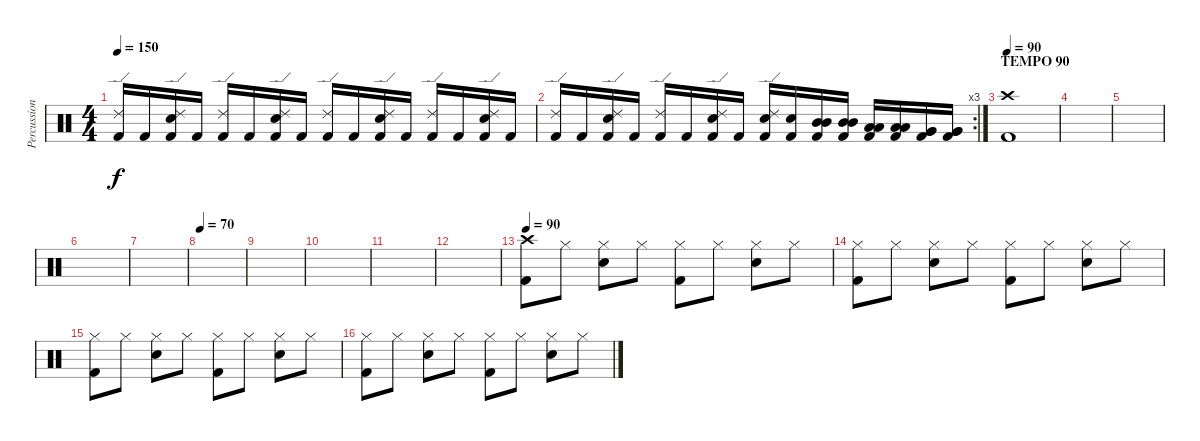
\track ("Percussion" "Percussion") {instrument percussion}
\staff {score}
\articulation defaults
\ts (4 4)
\tempo 150
\clef neutral
\ks c
("Kick (hit) 2" "Ride (edge) 2").16{dy f} "Kick (hit) 2".16 ("Kick (hit) 2" "Snare (hit) 2" "Ride (edge) 2").16 "Kick (hit) 2".16 ("Kick (hit) 2" "Ride (edge) 2").16 "Kick (hit) 2".16 ("Kick (hit) 2" "Snare (hit) 2" "Ride (edge) 2").16 "Kick (hit) 2".16 ("Kick (hit) 2" "Ride (edge) 2").16 "Kick (hit) 2".16 ("Kick (hit) 2" "Snare (hit) 2" "Ride (edge) 2").16 "Kick (hit) 2".16 ("Kick (hit) 2" "Ride (edge) 2").16 "Kick (hit) 2".16 ("Kick (hit) 2" "Snare (hit) 2" "Ride (edge) 2").16 "Kick (hit) 2".16 |
\rc 3
("Kick (hit) 2" "Ride (edge) 2").16 "Kick (hit) 2".16 ("Kick (hit) 2" "Snare (hit) 2" "Ride (edge) 2").16 "Kick (hit) 2".16 ("Kick (hit) 2" "Ride (edge) 2").16 "Kick (hit) 2".16 ("Kick (hit) 2" "Snare (hit) 2" "Ride (edge) 2").16 "Kick (hit) 2".16 ("Kick (hit) 2" "Snare (hit) 2" "Ride (edge) 2").16 ("Kick (hit) 2" "Snare (hit) 2").16 ("Kick (hit) 2" "Mid Tom (hit)" "Mid Tom (hit)").16 ("Kick (hit) 2" "Mid Tom (hit)" "Mid Tom (hit)").16 ("Kick (hit) 2" "Low Tom (hit)" "Low Tom (hit)").16 ("Kick (hit) 2" "Low Tom (hit)" "Low Tom (hit)").16 ("Kick (hit) 2" "Very Low Tom (hit)" "Very Low Tom (hit)").16 ("Kick (hit) 2" "Very Low Tom (hit)" "Very Low Tom (hit)").16 |
\section ("" "TEMPO 90")
\tempo 90
("Kick (hit) 2" "Crash high (hit)").1 |
|
|
|
|
\tempo 70
|
|
|
|
|
\tempo 90
("Kick (hit) 2" "Crash high (hit)").8 "Hi-Hat (closed)".8 ("Snare (hit) 2" "Hi-Hat (closed)").8 "Hi-Hat (closed)".8 ("Kick (hit) 2" "Hi-Hat (closed)").8 "Hi-Hat (closed)".8 ("Snare (hit) 2" "Hi-Hat (closed)").8 "Hi-Hat (closed)".8 |
("Kick (hit) 2" "Hi-Hat (closed)").8 "Hi-Hat (closed)".8 ("Snare (hit) 2" "Hi-Hat (closed)").8 "Hi-Hat (closed)".8 ("Kick (hit) 2" "Hi-Hat (closed)").8 "Hi-Hat (closed)".8 ("Snare (hit) 2" "Hi-Hat (closed)").8 "Hi-Hat (closed)".8 |
("Kick (hit) 2" "Hi-Hat (closed)").8 "Hi-Hat (closed)".8 ("Snare (hit) 2" "Hi-Hat (closed)").8 "Hi-Hat (closed)".8 ("Kick (hit) 2" "Hi-Hat (closed)").8 "Hi-Hat (closed)".8 ("Snare (hit) 2" "Hi-Hat (closed)").8 "Hi-Hat (closed)".8 |
("Kick (hit) 2" "Hi-Hat (closed)").8 "Hi-Hat (closed)".8 ("Snare (hit) 2" "Hi-Hat (closed)").8 "Hi-Hat (closed)".8 ("Kick (hit) 2" "Hi-Hat (closed)").8 "Hi-Hat (closed)".8 ("Snare (hit) 2" "Hi-Hat (closed)").8 "Hi-Hat (closed)".8
